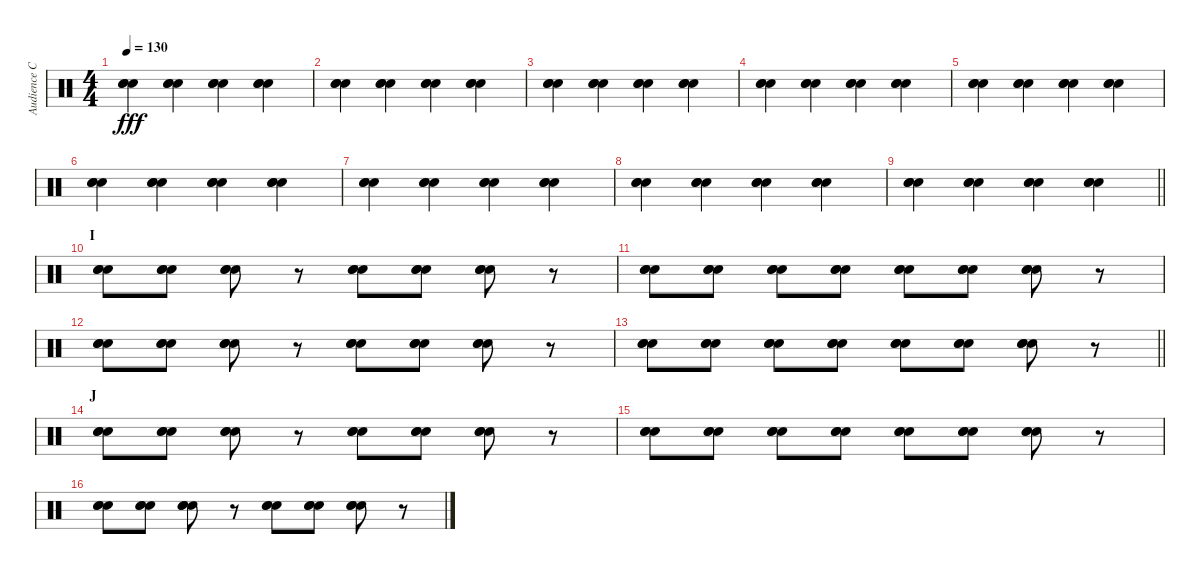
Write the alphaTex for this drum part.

\track ("Audience Claps" "Audience C") {instrument percussion}
\staff {score}
\articulation defaults
\ts (4 4)
\tempo 130
\clef neutral
\ks c
("Hand Clap (hit)" "Hand Clap (hit)" "Hand Clap (hit)").4{bd 60 dy fff} ("Hand Clap (hit)" "Hand Clap (hit)" "Hand Clap (hit)").4{bd 60} ("Hand Clap (hit)" "Hand Clap (hit)" "Hand Clap (hit)").4{bd 60} ("Hand Clap (hit)" "Hand Clap (hit)" "Hand Clap (hit)").4{bd 60} |
("Hand Clap (hit)" "Hand Clap (hit)" "Hand Clap (hit)").4{bd 60} ("Hand Clap (hit)" "Hand Clap (hit)" "Hand Clap (hit)").4{bd 60} ("Hand Clap (hit)" "Hand Clap (hit)" "Hand Clap (hit)").4{bd 60} ("Hand Clap (hit)" "Hand Clap (hit)" "Hand Clap (hit)").4{bd 60} |
("Hand Clap (hit)" "Hand Clap (hit)" "Hand Clap (hit)").4{bd 60} ("Hand Clap (hit)" "Hand Clap (hit)" "Hand Clap (hit)").4{bd 60} ("Hand Clap (hit)" "Hand Clap (hit)" "Hand Clap (hit)").4{bd 60} ("Hand Clap (hit)" "Hand Clap (hit)" "Hand Clap (hit)").4{bd 60} |
("Hand Clap (hit)" "Hand Clap (hit)" "Hand Clap (hit)").4{bd 60} ("Hand Clap (hit)" "Hand Clap (hit)" "Hand Clap (hit)").4{bd 60} ("Hand Clap (hit)" "Hand Clap (hit)" "Hand Clap (hit)").4{bd 60} ("Hand Clap (hit)" "Hand Clap (hit)" "Hand Clap (hit)").4{bd 60} |
("Hand Clap (hit)" "Hand Clap (hit)" "Hand Clap (hit)").4{bd 60} ("Hand Clap (hit)" "Hand Clap (hit)" "Hand Clap (hit)").4{bd 60} ("Hand Clap (hit)" "Hand Clap (hit)" "Hand Clap (hit)").4{bd 60} ("Hand Clap (hit)" "Hand Clap (hit)" "Hand Clap (hit)").4{bd 60} |
("Hand Clap (hit)" "Hand Clap (hit)" "Hand Clap (hit)").4{bd 60} ("Hand Clap (hit)" "Hand Clap (hit)" "Hand Clap (hit)").4{bd 60} ("Hand Clap (hit)" "Hand Clap (hit)" "Hand Clap (hit)").4{bd 60} ("Hand Clap (hit)" "Hand Clap (hit)" "Hand Clap (hit)").4{bd 60} |
("Hand Clap (hit)" "Hand Clap (hit)" "Hand Clap (hit)").4{bd 60} ("Hand Clap (hit)" "Hand Clap (hit)" "Hand Clap (hit)").4{bd 60} ("Hand Clap (hit)" "Hand Clap (hit)" "Hand Clap (hit)").4{bd 60} ("Hand Clap (hit)" "Hand Clap (hit)" "Hand Clap (hit)").4{bd 60} |
("Hand Clap (hit)" "Hand Clap (hit)" "Hand Clap (hit)").4{bd 60} ("Hand Clap (hit)" "Hand Clap (hit)" "Hand Clap (hit)").4{bd 60} ("Hand Clap (hit)" "Hand Clap (hit)" "Hand Clap (hit)").4{bd 60} ("Hand Clap (hit)" "Hand Clap (hit)" "Hand Clap (hit)").4{bd 60} |
\barLineRight lightlight
("Hand Clap (hit)" "Hand Clap (hit)" "Hand Clap (hit)").4{bd 60} ("Hand Clap (hit)" "Hand Clap (hit)" "Hand Clap (hit)").4{bd 60} ("Hand Clap (hit)" "Hand Clap (hit)" "Hand Clap (hit)").4{bd 60} ("Hand Clap (hit)" "Hand Clap (hit)" "Hand Clap (hit)").4{bd 60} |
\section ("" "I")
("Hand Clap (hit)" "Hand Clap (hit)" "Hand Clap (hit)").8{bd 60} ("Hand Clap (hit)" "Hand Clap (hit)" "Hand Clap (hit)").8{bd 60} ("Hand Clap (hit)" "Hand Clap (hit)" "Hand Clap (hit)").8{bd 60} r.8 ("Hand Clap (hit)" "Hand Clap (hit)" "Hand Clap (hit)").8{bd 60} ("Hand Clap (hit)" "Hand Clap (hit)" "Hand Clap (hit)").8{bd 60} ("Hand Clap (hit)" "Hand Clap (hit)" "Hand Clap (hit)").8{bd 60} r.8 |
("Hand Clap (hit)" "Hand Clap (hit)" "Hand Clap (hit)").8{bd 60} ("Hand Clap (hit)" "Hand Clap (hit)" "Hand Clap (hit)").8{bd 60} ("Hand Clap (hit)" "Hand Clap (hit)" "Hand Clap (hit)").8{bd 60} ("Hand Clap (hit)" "Hand Clap (hit)" "Hand Clap (hit)").8{bd 60} ("Hand Clap (hit)" "Hand Clap (hit)" "Hand Clap (hit)").8{bd 60} ("Hand Clap (hit)" "Hand Clap (hit)" "Hand Clap (hit)").8{bd 60} ("Hand Clap (hit)" "Hand Clap (hit)" "Hand Clap (hit)").8{bd 60} r.8 |
("Hand Clap (hit)" "Hand Clap (hit)" "Hand Clap (hit)").8{bd 60} ("Hand Clap (hit)" "Hand Clap (hit)" "Hand Clap (hit)").8{bd 60} ("Hand Clap (hit)" "Hand Clap (hit)" "Hand Clap (hit)").8{bd 60} r.8 ("Hand Clap (hit)" "Hand Clap (hit)" "Hand Clap (hit)").8{bd 60} ("Hand Clap (hit)" "Hand Clap (hit)" "Hand Clap (hit)").8{bd 60} ("Hand Clap (hit)" "Hand Clap (hit)" "Hand Clap (hit)").8{bd 60} r.8 |
\barLineRight lightlight
("Hand Clap (hit)" "Hand Clap (hit)" "Hand Clap (hit)").8{bd 60} ("Hand Clap (hit)" "Hand Clap (hit)" "Hand Clap (hit)").8{bd 60} ("Hand Clap (hit)" "Hand Clap (hit)" "Hand Clap (hit)").8{bd 60} ("Hand Clap (hit)" "Hand Clap (hit)" "Hand Clap (hit)").8{bd 60} ("Hand Clap (hit)" "Hand Clap (hit)" "Hand Clap (hit)").8{bd 60} ("Hand Clap (hit)" "Hand Clap (hit)" "Hand Clap (hit)").8{bd 60} ("Hand Clap (hit)" "Hand Clap (hit)" "Hand Clap (hit)").8{bd 60} r.8 |
\section ("" "J")
("Hand Clap (hit)" "Hand Clap (hit)" "Hand Clap (hit)").8{bd 60} ("Hand Clap (hit)" "Hand Clap (hit)" "Hand Clap (hit)").8{bd 60} ("Hand Clap (hit)" "Hand Clap (hit)" "Hand Clap (hit)").8{bd 60} r.8 ("Hand Clap (hit)" "Hand Clap (hit)" "Hand Clap (hit)").8{bd 60} ("Hand Clap (hit)" "Hand Clap (hit)" "Hand Clap (hit)").8{bd 60} ("Hand Clap (hit)" "Hand Clap (hit)" "Hand Clap (hit)").8{bd 60} r.8 |
("Hand Clap (hit)" "Hand Clap (hit)" "Hand Clap (hit)").8{bd 60} ("Hand Clap (hit)" "Hand Clap (hit)" "Hand Clap (hit)").8{bd 60} ("Hand Clap (hit)" "Hand Clap (hit)" "Hand Clap (hit)").8{bd 60} ("Hand Clap (hit)" "Hand Clap (hit)" "Hand Clap (hit)").8{bd 60} ("Hand Clap (hit)" "Hand Clap (hit)" "Hand Clap (hit)").8{bd 60} ("Hand Clap (hit)" "Hand Clap (hit)" "Hand Clap (hit)").8{bd 60} ("Hand Clap (hit)" "Hand Clap (hit)" "Hand Clap (hit)").8{bd 60} r.8 |
("Hand Clap (hit)" "Hand Clap (hit)" "Hand Clap (hit)").8{bd 60} ("Hand Clap (hit)" "Hand Clap (hit)" "Hand Clap (hit)").8{bd 60} ("Hand Clap (hit)" "Hand Clap (hit)" "Hand Clap (hit)").8{bd 60} r.8 ("Hand Clap (hit)" "Hand Clap (hit)" "Hand Clap (hit)").8{bd 60} ("Hand Clap (hit)" "Hand Clap (hit)" "Hand Clap (hit)").8{bd 60} ("Hand Clap (hit)" "Hand Clap (hit)" "Hand Clap (hit)").8{bd 60} r.8
